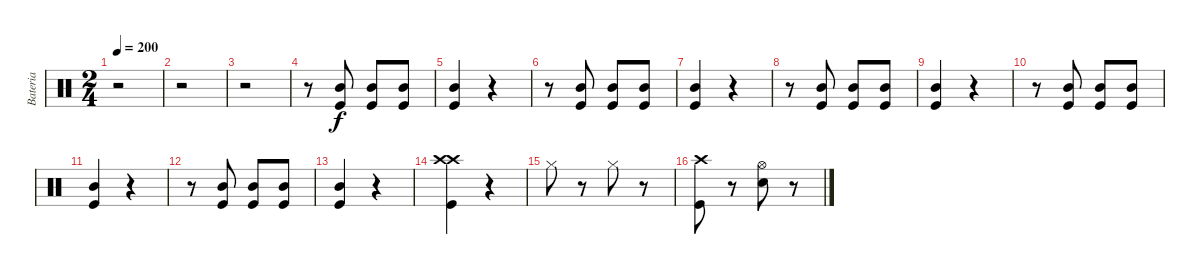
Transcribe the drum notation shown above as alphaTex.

\track ("Bateria" "Bateria") {instrument percussion}
\staff {score}
\articulation defaults
\ts (2 4)
\tempo 200
\clef neutral
\ks c
r.2{dy f} |
r.2 |
r.2 |
r.8 ("Mid Tom (hit)" "Kick (hit)").8 ("Mid Tom (hit)" "Kick (hit)").8 ("Mid Tom (hit)" "Kick (hit)").8 |
("Mid Tom (hit)" "Kick (hit)").4 r.4 |
r.8 ("Mid Tom (hit)" "Kick (hit)").8 ("Mid Tom (hit)" "Kick (hit)").8 ("Mid Tom (hit)" "Kick (hit)").8 |
("Mid Tom (hit)" "Kick (hit)").4 r.4 |
r.8 ("Mid Tom (hit)" "Kick (hit)").8 ("Mid Tom (hit)" "Kick (hit)").8 ("Mid Tom (hit)" "Kick (hit)").8 |
("Mid Tom (hit)" "Kick (hit)").4 r.4 |
r.8 ("Mid Tom (hit)" "Kick (hit)").8 ("Mid Tom (hit)" "Kick (hit)").8 ("Mid Tom (hit)" "Kick (hit)").8 |
("Mid Tom (hit)" "Kick (hit)").4 r.4 |
r.8 ("Mid Tom (hit)" "Kick (hit)").8 ("Mid Tom (hit)" "Kick (hit)").8 ("Mid Tom (hit)" "Kick (hit)").8 |
("Mid Tom (hit)" "Kick (hit)").4 r.4 |
("Kick (hit)" "Crash high (hit)" "Crash high (hit)").4 r.4 |
"Hi-Hat (closed)".8 r.8 "Hi-Hat (closed)".8 r.8 |
("Kick (hit)" "Crash high (hit)").8 r.8 ("Electric Snare (hit)" "Hi-Hat (open)").8 r.8
